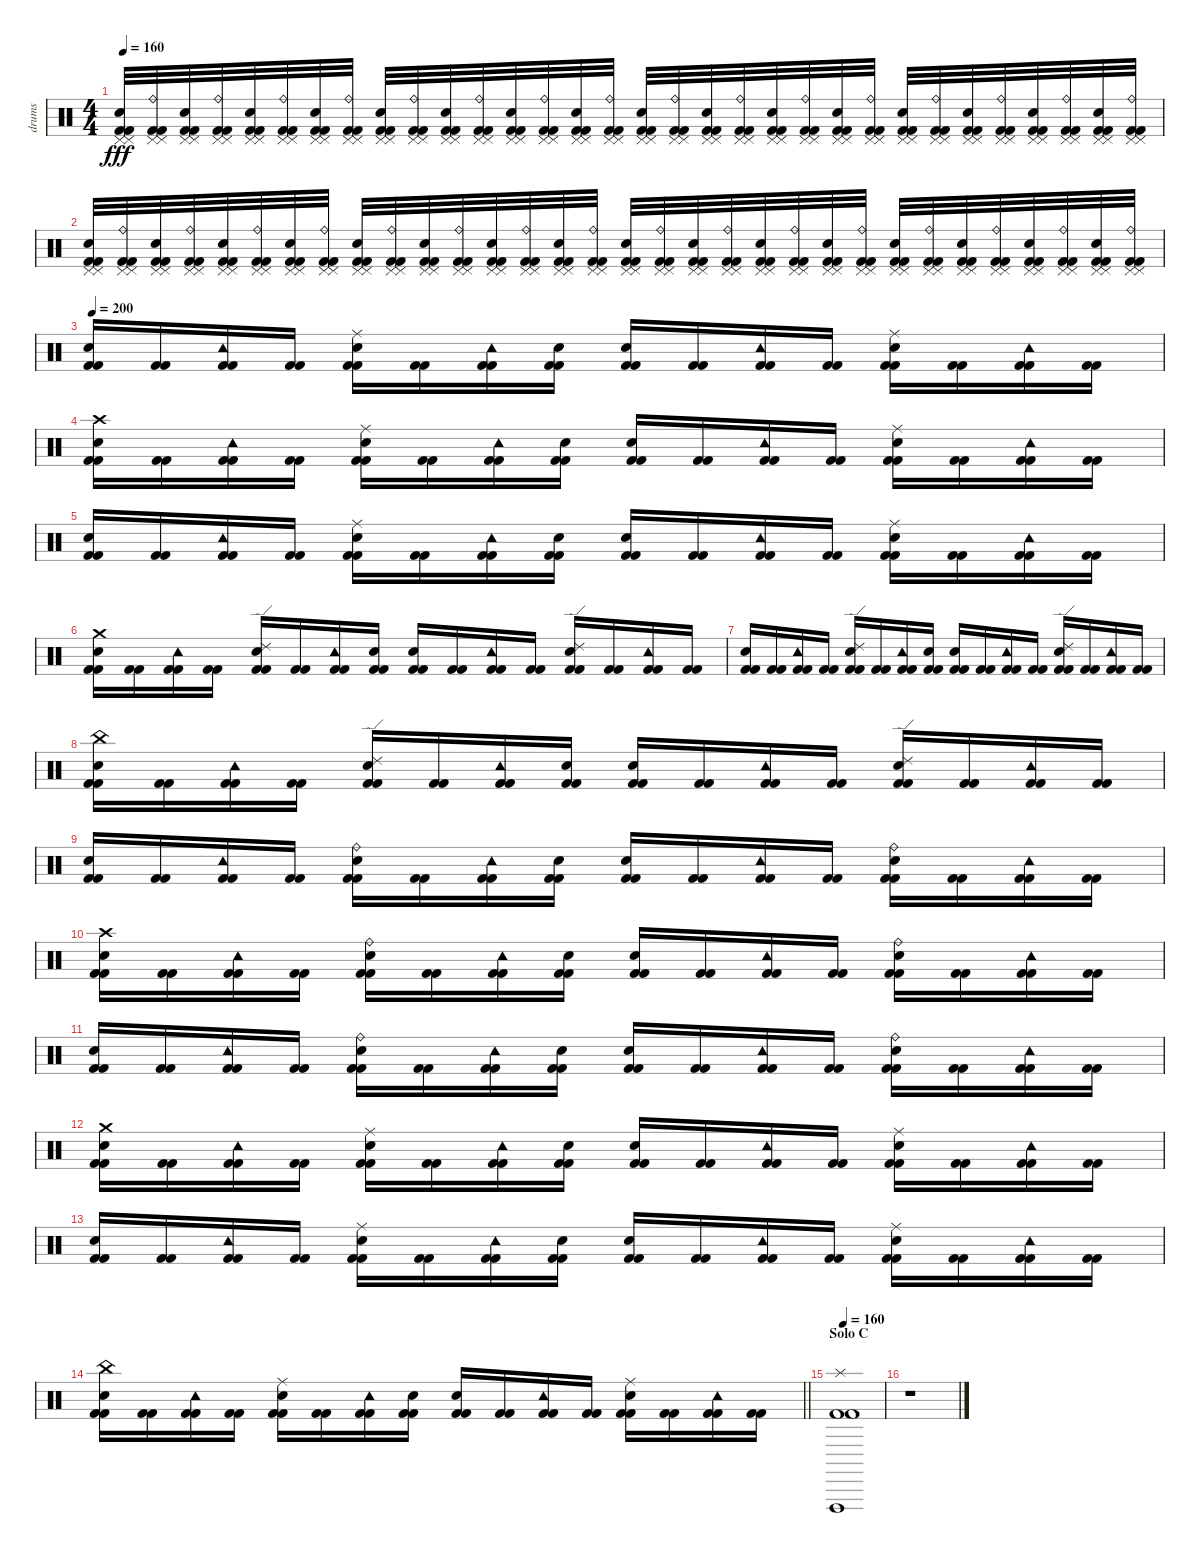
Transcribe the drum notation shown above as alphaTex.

\track ("drums" "drums") {instrument percussion}
\staff {score}
\articulation defaults
\ts (4 4)
\tempo 160
\clef neutral
\ks c
("Electric Snare (hit)" "Pedal Hi-Hat (hit)" "Pedal Hi-Hat (hit)" "Kick (hit) 2" "Kick (hit) 2").32{dy fff} ("Ride (bell)" "Pedal Hi-Hat (hit)" "Pedal Hi-Hat (hit)" "Kick (hit) 2" "Kick (hit) 2").32 ("Electric Snare (hit)" "Pedal Hi-Hat (hit)" "Pedal Hi-Hat (hit)" "Kick (hit) 2" "Kick (hit) 2").32 ("Ride (bell)" "Pedal Hi-Hat (hit)" "Pedal Hi-Hat (hit)" "Kick (hit) 2" "Kick (hit) 2").32 ("Electric Snare (hit)" "Pedal Hi-Hat (hit)" "Pedal Hi-Hat (hit)" "Kick (hit) 2" "Kick (hit) 2").32 ("Ride (bell)" "Pedal Hi-Hat (hit)" "Pedal Hi-Hat (hit)" "Kick (hit) 2" "Kick (hit) 2").32 ("Electric Snare (hit)" "Pedal Hi-Hat (hit)" "Pedal Hi-Hat (hit)" "Kick (hit) 2" "Kick (hit) 2").32 ("Ride (bell)" "Pedal Hi-Hat (hit)" "Pedal Hi-Hat (hit)" "Kick (hit) 2" "Kick (hit) 2").32 ("Electric Snare (hit)" "Pedal Hi-Hat (hit)" "Pedal Hi-Hat (hit)" "Kick (hit) 2" "Kick (hit) 2").32 ("Ride (bell)" "Pedal Hi-Hat (hit)" "Pedal Hi-Hat (hit)" "Kick (hit) 2" "Kick (hit) 2").32 ("Electric Snare (hit)" "Pedal Hi-Hat (hit)" "Pedal Hi-Hat (hit)" "Kick (hit) 2" "Kick (hit) 2").32 ("Ride (bell)" "Pedal Hi-Hat (hit)" "Pedal Hi-Hat (hit)" "Kick (hit) 2" "Kick (hit) 2").32 ("Electric Snare (hit)" "Pedal Hi-Hat (hit)" "Pedal Hi-Hat (hit)" "Kick (hit) 2" "Kick (hit) 2").32 ("Ride (bell)" "Pedal Hi-Hat (hit)" "Pedal Hi-Hat (hit)" "Kick (hit) 2" "Kick (hit) 2").32 ("Electric Snare (hit)" "Pedal Hi-Hat (hit)" "Pedal Hi-Hat (hit)" "Kick (hit) 2" "Kick (hit) 2").32 ("Ride (bell)" "Pedal Hi-Hat (hit)" "Pedal Hi-Hat (hit)" "Kick (hit) 2" "Kick (hit) 2").32 ("Electric Snare (hit)" "Pedal Hi-Hat (hit)" "Pedal Hi-Hat (hit)" "Kick (hit) 2" "Kick (hit) 2").32 ("Ride (bell)" "Pedal Hi-Hat (hit)" "Pedal Hi-Hat (hit)" "Kick (hit) 2" "Kick (hit) 2").32 ("Electric Snare (hit)" "Pedal Hi-Hat (hit)" "Pedal Hi-Hat (hit)" "Kick (hit) 2" "Kick (hit) 2").32 ("Ride (bell)" "Pedal Hi-Hat (hit)" "Pedal Hi-Hat (hit)" "Kick (hit) 2" "Kick (hit) 2").32 ("Electric Snare (hit)" "Pedal Hi-Hat (hit)" "Pedal Hi-Hat (hit)" "Kick (hit) 2" "Kick (hit) 2").32 ("Ride (bell)" "Pedal Hi-Hat (hit)" "Pedal Hi-Hat (hit)" "Kick (hit) 2" "Kick (hit) 2").32 ("Electric Snare (hit)" "Pedal Hi-Hat (hit)" "Pedal Hi-Hat (hit)" "Kick (hit) 2" "Kick (hit) 2").32 ("Ride (bell)" "Pedal Hi-Hat (hit)" "Pedal Hi-Hat (hit)" "Kick (hit) 2" "Kick (hit) 2").32 ("Electric Snare (hit)" "Pedal Hi-Hat (hit)" "Pedal Hi-Hat (hit)" "Kick (hit) 2" "Kick (hit) 2").32 ("Ride (bell)" "Pedal Hi-Hat (hit)" "Pedal Hi-Hat (hit)" "Kick (hit) 2" "Kick (hit) 2").32 ("Electric Snare (hit)" "Pedal Hi-Hat (hit)" "Pedal Hi-Hat (hit)" "Kick (hit) 2" "Kick (hit) 2").32 ("Ride (bell)" "Pedal Hi-Hat (hit)" "Pedal Hi-Hat (hit)" "Kick (hit) 2" "Kick (hit) 2").32 ("Electric Snare (hit)" "Pedal Hi-Hat (hit)" "Pedal Hi-Hat (hit)" "Kick (hit) 2" "Kick (hit) 2").32 ("Ride (bell)" "Pedal Hi-Hat (hit)" "Pedal Hi-Hat (hit)" "Kick (hit) 2" "Kick (hit) 2").32 ("Electric Snare (hit)" "Pedal Hi-Hat (hit)" "Pedal Hi-Hat (hit)" "Kick (hit) 2" "Kick (hit) 2").32 ("Ride (bell)" "Pedal Hi-Hat (hit)" "Pedal Hi-Hat (hit)" "Kick (hit) 2" "Kick (hit) 2").32 |
("Electric Snare (hit)" "Pedal Hi-Hat (hit)" "Pedal Hi-Hat (hit)" "Kick (hit) 2" "Kick (hit) 2").32 ("Ride (bell)" "Pedal Hi-Hat (hit)" "Pedal Hi-Hat (hit)" "Kick (hit) 2" "Kick (hit) 2").32 ("Electric Snare (hit)" "Pedal Hi-Hat (hit)" "Pedal Hi-Hat (hit)" "Kick (hit) 2" "Kick (hit) 2").32 ("Ride (bell)" "Pedal Hi-Hat (hit)" "Pedal Hi-Hat (hit)" "Kick (hit) 2" "Kick (hit) 2").32 ("Electric Snare (hit)" "Pedal Hi-Hat (hit)" "Pedal Hi-Hat (hit)" "Kick (hit) 2" "Kick (hit) 2").32 ("Ride (bell)" "Pedal Hi-Hat (hit)" "Pedal Hi-Hat (hit)" "Kick (hit) 2" "Kick (hit) 2").32 ("Electric Snare (hit)" "Pedal Hi-Hat (hit)" "Pedal Hi-Hat (hit)" "Kick (hit) 2" "Kick (hit) 2").32 ("Ride (bell)" "Pedal Hi-Hat (hit)" "Pedal Hi-Hat (hit)" "Kick (hit) 2" "Kick (hit) 2").32 ("Electric Snare (hit)" "Pedal Hi-Hat (hit)" "Pedal Hi-Hat (hit)" "Kick (hit) 2" "Kick (hit) 2").32 ("Ride (bell)" "Pedal Hi-Hat (hit)" "Pedal Hi-Hat (hit)" "Kick (hit) 2" "Kick (hit) 2").32 ("Electric Snare (hit)" "Pedal Hi-Hat (hit)" "Pedal Hi-Hat (hit)" "Kick (hit) 2" "Kick (hit) 2").32 ("Ride (bell)" "Pedal Hi-Hat (hit)" "Pedal Hi-Hat (hit)" "Kick (hit) 2" "Kick (hit) 2").32 ("Electric Snare (hit)" "Pedal Hi-Hat (hit)" "Pedal Hi-Hat (hit)" "Kick (hit) 2" "Kick (hit) 2").32 ("Ride (bell)" "Pedal Hi-Hat (hit)" "Pedal Hi-Hat (hit)" "Kick (hit) 2" "Kick (hit) 2").32 ("Electric Snare (hit)" "Pedal Hi-Hat (hit)" "Pedal Hi-Hat (hit)" "Kick (hit) 2" "Kick (hit) 2").32 ("Ride (bell)" "Pedal Hi-Hat (hit)" "Pedal Hi-Hat (hit)" "Kick (hit) 2" "Kick (hit) 2").32 ("Electric Snare (hit)" "Pedal Hi-Hat (hit)" "Pedal Hi-Hat (hit)" "Kick (hit) 2" "Kick (hit) 2").32 ("Ride (bell)" "Pedal Hi-Hat (hit)" "Pedal Hi-Hat (hit)" "Kick (hit) 2" "Kick (hit) 2").32 ("Electric Snare (hit)" "Pedal Hi-Hat (hit)" "Pedal Hi-Hat (hit)" "Kick (hit) 2" "Kick (hit) 2").32 ("Ride (bell)" "Pedal Hi-Hat (hit)" "Pedal Hi-Hat (hit)" "Kick (hit) 2" "Kick (hit) 2").32 ("Electric Snare (hit)" "Pedal Hi-Hat (hit)" "Pedal Hi-Hat (hit)" "Kick (hit) 2" "Kick (hit) 2").32 ("Ride (bell)" "Pedal Hi-Hat (hit)" "Pedal Hi-Hat (hit)" "Kick (hit) 2" "Kick (hit) 2").32 ("Electric Snare (hit)" "Pedal Hi-Hat (hit)" "Pedal Hi-Hat (hit)" "Kick (hit) 2" "Kick (hit) 2").32 ("Ride (bell)" "Pedal Hi-Hat (hit)" "Pedal Hi-Hat (hit)" "Kick (hit) 2" "Kick (hit) 2").32 ("Electric Snare (hit)" "Pedal Hi-Hat (hit)" "Pedal Hi-Hat (hit)" "Kick (hit) 2" "Kick (hit) 2").32 ("Ride (bell)" "Pedal Hi-Hat (hit)" "Pedal Hi-Hat (hit)" "Kick (hit) 2" "Kick (hit) 2").32 ("Electric Snare (hit)" "Pedal Hi-Hat (hit)" "Pedal Hi-Hat (hit)" "Kick (hit) 2" "Kick (hit) 2").32 ("Ride (bell)" "Pedal Hi-Hat (hit)" "Pedal Hi-Hat (hit)" "Kick (hit) 2" "Kick (hit) 2").32 ("Electric Snare (hit)" "Pedal Hi-Hat (hit)" "Pedal Hi-Hat (hit)" "Kick (hit) 2" "Kick (hit) 2").32 ("Ride (bell)" "Pedal Hi-Hat (hit)" "Pedal Hi-Hat (hit)" "Kick (hit) 2" "Kick (hit) 2").32 ("Electric Snare (hit)" "Pedal Hi-Hat (hit)" "Pedal Hi-Hat (hit)" "Kick (hit) 2" "Kick (hit) 2").32 ("Ride (bell)" "Pedal Hi-Hat (hit)" "Pedal Hi-Hat (hit)" "Kick (hit) 2" "Kick (hit) 2").32 |
\tempo 200
("Electric Snare (hit)" "Kick (hit) 2" "Kick (hit) 2").16 ("Kick (hit) 2" "Kick (hit) 2").16 ("Tambourine (hit)" "Kick (hit) 2" "Kick (hit) 2").16 ("Kick (hit) 2" "Kick (hit) 2").16 ("Ride (middle)" "Electric Snare (hit)" "Kick (hit) 2" "Kick (hit) 2").16 ("Kick (hit) 2" "Kick (hit) 2").16 ("Tambourine (hit)" "Kick (hit) 2" "Kick (hit) 2").16 ("Snare (hit) 2" "Kick (hit) 2" "Kick (hit) 2").16 ("Electric Snare (hit)" "Kick (hit) 2" "Kick (hit) 2").16 ("Kick (hit) 2" "Kick (hit) 2").16 ("Tambourine (hit)" "Kick (hit) 2" "Kick (hit) 2").16 ("Kick (hit) 2" "Kick (hit) 2").16 ("Ride (middle)" "Electric Snare (hit)" "Kick (hit) 2" "Kick (hit) 2").16 ("Kick (hit) 2" "Kick (hit) 2").16 ("Tambourine (hit)" "Kick (hit) 2" "Kick (hit) 2").16 ("Kick (hit) 2" "Kick (hit) 2").16 |
("Crash high (hit)" "Electric Snare (hit)" "Kick (hit) 2" "Kick (hit) 2").16 ("Kick (hit) 2" "Kick (hit) 2").16 ("Tambourine (hit)" "Kick (hit) 2" "Kick (hit) 2").16 ("Kick (hit) 2" "Kick (hit) 2").16 ("Ride (middle)" "Electric Snare (hit)" "Kick (hit) 2" "Kick (hit) 2").16 ("Kick (hit) 2" "Kick (hit) 2").16 ("Tambourine (hit)" "Kick (hit) 2" "Kick (hit) 2").16 ("Snare (hit) 2" "Kick (hit) 2" "Kick (hit) 2").16 ("Electric Snare (hit)" "Kick (hit) 2" "Kick (hit) 2").16 ("Kick (hit) 2" "Kick (hit) 2").16 ("Tambourine (hit)" "Kick (hit) 2" "Kick (hit) 2").16 ("Kick (hit) 2" "Kick (hit) 2").16 ("Ride (middle)" "Electric Snare (hit)" "Kick (hit) 2" "Kick (hit) 2").16 ("Kick (hit) 2" "Kick (hit) 2").16 ("Tambourine (hit)" "Kick (hit) 2" "Kick (hit) 2").16 ("Kick (hit) 2" "Kick (hit) 2").16 |
("Electric Snare (hit)" "Kick (hit) 2" "Kick (hit) 2").16 ("Kick (hit) 2" "Kick (hit) 2").16 ("Tambourine (hit)" "Kick (hit) 2" "Kick (hit) 2").16 ("Kick (hit) 2" "Kick (hit) 2").16 ("Ride (middle)" "Electric Snare (hit)" "Kick (hit) 2" "Kick (hit) 2").16 ("Kick (hit) 2" "Kick (hit) 2").16 ("Tambourine (hit)" "Kick (hit) 2" "Kick (hit) 2").16 ("Snare (hit) 2" "Kick (hit) 2" "Kick (hit) 2").16 ("Electric Snare (hit)" "Kick (hit) 2" "Kick (hit) 2").16 ("Kick (hit) 2" "Kick (hit) 2").16 ("Tambourine (hit)" "Kick (hit) 2" "Kick (hit) 2").16 ("Kick (hit) 2" "Kick (hit) 2").16 ("Ride (middle)" "Electric Snare (hit)" "Kick (hit) 2" "Kick (hit) 2").16 ("Kick (hit) 2" "Kick (hit) 2").16 ("Tambourine (hit)" "Kick (hit) 2" "Kick (hit) 2").16 ("Kick (hit) 2" "Kick (hit) 2").16 |
("Crash medium (hit)" "Electric Snare (hit)" "Kick (hit) 2" "Kick (hit) 2").16 ("Kick (hit) 2" "Kick (hit) 2").16 ("Tambourine (hit)" "Kick (hit) 2" "Kick (hit) 2").16 ("Kick (hit) 2" "Kick (hit) 2").16 ("Ride (edge) 2" "Electric Snare (hit)" "Kick (hit) 2" "Kick (hit) 2").16 ("Kick (hit) 2" "Kick (hit) 2").16 ("Tambourine (hit)" "Kick (hit) 2" "Kick (hit) 2").16 ("Snare (hit) 2" "Kick (hit) 2" "Kick (hit) 2").16 ("Electric Snare (hit)" "Kick (hit) 2" "Kick (hit) 2").16 ("Kick (hit) 2" "Kick (hit) 2").16 ("Tambourine (hit)" "Kick (hit) 2" "Kick (hit) 2").16 ("Kick (hit) 2" "Kick (hit) 2").16 ("Ride (edge) 2" "Electric Snare (hit)" "Kick (hit) 2" "Kick (hit) 2").16 ("Kick (hit) 2" "Kick (hit) 2").16 ("Tambourine (hit)" "Kick (hit) 2" "Kick (hit) 2").16 ("Kick (hit) 2" "Kick (hit) 2").16 |
("Electric Snare (hit)" "Kick (hit) 2" "Kick (hit) 2").16 ("Kick (hit) 2" "Kick (hit) 2").16 ("Tambourine (hit)" "Kick (hit) 2" "Kick (hit) 2").16 ("Kick (hit) 2" "Kick (hit) 2").16 ("Ride (edge) 2" "Electric Snare (hit)" "Kick (hit) 2" "Kick (hit) 2").16 ("Kick (hit) 2" "Kick (hit) 2").16 ("Tambourine (hit)" "Kick (hit) 2" "Kick (hit) 2").16 ("Snare (hit) 2" "Kick (hit) 2" "Kick (hit) 2").16 ("Electric Snare (hit)" "Kick (hit) 2" "Kick (hit) 2").16 ("Kick (hit) 2" "Kick (hit) 2").16 ("Tambourine (hit)" "Kick (hit) 2" "Kick (hit) 2").16 ("Kick (hit) 2" "Kick (hit) 2").16 ("Ride (edge) 2" "Electric Snare (hit)" "Kick (hit) 2" "Kick (hit) 2").16 ("Kick (hit) 2" "Kick (hit) 2").16 ("Tambourine (hit)" "Kick (hit) 2" "Kick (hit) 2").16 ("Kick (hit) 2" "Kick (hit) 2").16 |
("China (hit)" "Electric Snare (hit)" "Kick (hit) 2" "Kick (hit) 2").16 ("Kick (hit) 2" "Kick (hit) 2").16 ("Tambourine (hit)" "Kick (hit) 2" "Kick (hit) 2").16 ("Kick (hit) 2" "Kick (hit) 2").16 ("Ride (edge) 2" "Electric Snare (hit)" "Kick (hit) 2" "Kick (hit) 2").16 ("Kick (hit) 2" "Kick (hit) 2").16 ("Tambourine (hit)" "Kick (hit) 2" "Kick (hit) 2").16 ("Snare (hit) 2" "Kick (hit) 2" "Kick (hit) 2").16 ("Electric Snare (hit)" "Kick (hit) 2" "Kick (hit) 2").16 ("Kick (hit) 2" "Kick (hit) 2").16 ("Tambourine (hit)" "Kick (hit) 2" "Kick (hit) 2").16 ("Kick (hit) 2" "Kick (hit) 2").16 ("Ride (edge) 2" "Electric Snare (hit)" "Kick (hit) 2" "Kick (hit) 2").16 ("Kick (hit) 2" "Kick (hit) 2").16 ("Tambourine (hit)" "Kick (hit) 2" "Kick (hit) 2").16 ("Kick (hit) 2" "Kick (hit) 2").16 |
("Electric Snare (hit)" "Kick (hit) 2" "Kick (hit) 2").16 ("Kick (hit) 2" "Kick (hit) 2").16 ("Tambourine (hit)" "Kick (hit) 2" "Kick (hit) 2").16 ("Kick (hit) 2" "Kick (hit) 2").16 ("Ride (bell)" "Electric Snare (hit)" "Kick (hit) 2" "Kick (hit) 2").16 ("Kick (hit) 2" "Kick (hit) 2").16 ("Tambourine (hit)" "Kick (hit) 2" "Kick (hit) 2").16 ("Snare (hit) 2" "Kick (hit) 2" "Kick (hit) 2").16 ("Electric Snare (hit)" "Kick (hit) 2" "Kick (hit) 2").16 ("Kick (hit) 2" "Kick (hit) 2").16 ("Tambourine (hit)" "Kick (hit) 2" "Kick (hit) 2").16 ("Kick (hit) 2" "Kick (hit) 2").16 ("Ride (bell)" "Electric Snare (hit)" "Kick (hit) 2" "Kick (hit) 2").16 ("Kick (hit) 2" "Kick (hit) 2").16 ("Tambourine (hit)" "Kick (hit) 2" "Kick (hit) 2").16 ("Kick (hit) 2" "Kick (hit) 2").16 |
("Crash high (hit)" "Electric Snare (hit)" "Kick (hit) 2" "Kick (hit) 2").16 ("Kick (hit) 2" "Kick (hit) 2").16 ("Tambourine (hit)" "Kick (hit) 2" "Kick (hit) 2").16 ("Kick (hit) 2" "Kick (hit) 2").16 ("Ride (bell)" "Electric Snare (hit)" "Kick (hit) 2" "Kick (hit) 2").16 ("Kick (hit) 2" "Kick (hit) 2").16 ("Tambourine (hit)" "Kick (hit) 2" "Kick (hit) 2").16 ("Snare (hit) 2" "Kick (hit) 2" "Kick (hit) 2").16 ("Electric Snare (hit)" "Kick (hit) 2" "Kick (hit) 2").16 ("Kick (hit) 2" "Kick (hit) 2").16 ("Tambourine (hit)" "Kick (hit) 2" "Kick (hit) 2").16 ("Kick (hit) 2" "Kick (hit) 2").16 ("Ride (bell)" "Electric Snare (hit)" "Kick (hit) 2" "Kick (hit) 2").16 ("Kick (hit) 2" "Kick (hit) 2").16 ("Tambourine (hit)" "Kick (hit) 2" "Kick (hit) 2").16 ("Kick (hit) 2" "Kick (hit) 2").16 |
("Electric Snare (hit)" "Kick (hit) 2" "Kick (hit) 2").16 ("Kick (hit) 2" "Kick (hit) 2").16 ("Tambourine (hit)" "Kick (hit) 2" "Kick (hit) 2").16 ("Kick (hit) 2" "Kick (hit) 2").16 ("Ride (bell)" "Electric Snare (hit)" "Kick (hit) 2" "Kick (hit) 2").16 ("Kick (hit) 2" "Kick (hit) 2").16 ("Tambourine (hit)" "Kick (hit) 2" "Kick (hit) 2").16 ("Snare (hit) 2" "Kick (hit) 2" "Kick (hit) 2").16 ("Electric Snare (hit)" "Kick (hit) 2" "Kick (hit) 2").16 ("Kick (hit) 2" "Kick (hit) 2").16 ("Tambourine (hit)" "Kick (hit) 2" "Kick (hit) 2").16 ("Kick (hit) 2" "Kick (hit) 2").16 ("Ride (bell)" "Electric Snare (hit)" "Kick (hit) 2" "Kick (hit) 2").16 ("Kick (hit) 2" "Kick (hit) 2").16 ("Tambourine (hit)" "Kick (hit) 2" "Kick (hit) 2").16 ("Kick (hit) 2" "Kick (hit) 2").16 |
("Crash medium (hit)" "Electric Snare (hit)" "Kick (hit) 2" "Kick (hit) 2").16 ("Kick (hit) 2" "Kick (hit) 2").16 ("Tambourine (hit)" "Kick (hit) 2" "Kick (hit) 2").16 ("Kick (hit) 2" "Kick (hit) 2").16 ("Ride (middle)" "Electric Snare (hit)" "Kick (hit) 2" "Kick (hit) 2").16 ("Kick (hit) 2" "Kick (hit) 2").16 ("Tambourine (hit)" "Kick (hit) 2" "Kick (hit) 2").16 ("Snare (hit) 2" "Kick (hit) 2" "Kick (hit) 2").16 ("Electric Snare (hit)" "Kick (hit) 2" "Kick (hit) 2").16 ("Kick (hit) 2" "Kick (hit) 2").16 ("Tambourine (hit)" "Kick (hit) 2" "Kick (hit) 2").16 ("Kick (hit) 2" "Kick (hit) 2").16 ("Ride (middle)" "Electric Snare (hit)" "Kick (hit) 2" "Kick (hit) 2").16 ("Kick (hit) 2" "Kick (hit) 2").16 ("Tambourine (hit)" "Kick (hit) 2" "Kick (hit) 2").16 ("Kick (hit) 2" "Kick (hit) 2").16 |
("Electric Snare (hit)" "Kick (hit) 2" "Kick (hit) 2").16 ("Kick (hit) 2" "Kick (hit) 2").16 ("Tambourine (hit)" "Kick (hit) 2" "Kick (hit) 2").16 ("Kick (hit) 2" "Kick (hit) 2").16 ("Ride (middle)" "Electric Snare (hit)" "Kick (hit) 2" "Kick (hit) 2").16 ("Kick (hit) 2" "Kick (hit) 2").16 ("Tambourine (hit)" "Kick (hit) 2" "Kick (hit) 2").16 ("Snare (hit) 2" "Kick (hit) 2" "Kick (hit) 2").16 ("Electric Snare (hit)" "Kick (hit) 2" "Kick (hit) 2").16 ("Kick (hit) 2" "Kick (hit) 2").16 ("Tambourine (hit)" "Kick (hit) 2" "Kick (hit) 2").16 ("Kick (hit) 2" "Kick (hit) 2").16 ("Ride (middle)" "Electric Snare (hit)" "Kick (hit) 2" "Kick (hit) 2").16 ("Kick (hit) 2" "Kick (hit) 2").16 ("Tambourine (hit)" "Kick (hit) 2" "Kick (hit) 2").16 ("Kick (hit) 2" "Kick (hit) 2").16 |
\barLineRight lightlight
("China (hit)" "Electric Snare (hit)" "Kick (hit) 2" "Kick (hit) 2").16 ("Kick (hit) 2" "Kick (hit) 2").16 ("Tambourine (hit)" "Kick (hit) 2" "Kick (hit) 2").16 ("Kick (hit) 2" "Kick (hit) 2").16 ("Ride (middle)" "Electric Snare (hit)" "Kick (hit) 2" "Kick (hit) 2").16 ("Kick (hit) 2" "Kick (hit) 2").16 ("Tambourine (hit)" "Kick (hit) 2" "Kick (hit) 2").16 ("Snare (hit) 2" "Kick (hit) 2" "Kick (hit) 2").16 ("Electric Snare (hit)" "Kick (hit) 2" "Kick (hit) 2").16 ("Kick (hit) 2" "Kick (hit) 2").16 ("Tambourine (hit)" "Kick (hit) 2" "Kick (hit) 2").16 ("Kick (hit) 2" "Kick (hit) 2").16 ("Ride (middle)" "Electric Snare (hit)" "Kick (hit) 2" "Kick (hit) 2").16 ("Kick (hit) 2" "Kick (hit) 2").16 ("Tambourine (hit)" "Kick (hit) 2" "Kick (hit) 2").16 ("Kick (hit) 2" "Kick (hit) 2").16 |
\section ("" "Solo C")
\tempo 160
("Splash (hit)" "Vibraslap (hit)" "Kick (hit) 2" "Kick (hit) 2").1 |
r.1
